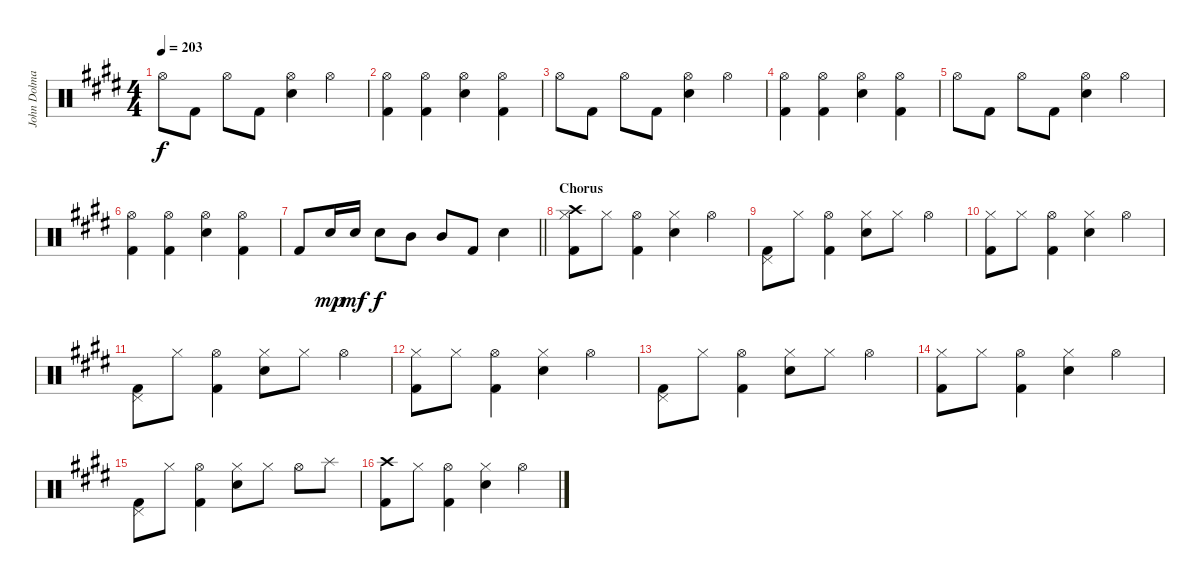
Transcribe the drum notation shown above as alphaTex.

\track ("John Dolmayan [Drums]" "John Dolma") {instrument percussion}
\staff {score}
\articulation defaults
\ts (4 4)
\tempo 203
\clef neutral
\ks c#minor "Hi-Hat (open)".8{dy f} "Kick (hit) 2".8 "Hi-Hat (open)".8 "Kick (hit) 2".8
("Hi-Hat (open)" "Electric Snare (hit)").4 "Hi-Hat (open)".4 |
("Hi-Hat (open)" "Kick (hit) 2").4 ("Hi-Hat (open)" "Kick (hit) 2").4 ("Hi-Hat (open)" "Electric Snare (hit)").4 ("Hi-Hat (open)" "Kick (hit) 2").4 |
"Hi-Hat (open)".8 "Kick (hit) 2".8 "Hi-Hat (open)".8 "Kick (hit) 2".8 ("Hi-Hat (open)" "Electric Snare (hit)").4 "Hi-Hat (open)".4 |
("Hi-Hat (open)" "Kick (hit) 2").4 ("Hi-Hat (open)" "Kick (hit) 2").4 ("Hi-Hat (open)" "Electric Snare (hit)").4 ("Hi-Hat (open)" "Kick (hit) 2").4 |
"Hi-Hat (open)".8 "Kick (hit) 2".8 "Hi-Hat (open)".8 "Kick (hit) 2".8 ("Hi-Hat (open)" "Electric Snare (hit)").4 "Hi-Hat (open)".4 |
("Hi-Hat (open)" "Kick (hit) 2").4 ("Hi-Hat (open)" "Kick (hit) 2").4 ("Hi-Hat (open)" "Electric Snare (hit)").4 ("Hi-Hat (open)" "Kick (hit) 2").4 |
\barLineRight lightlight "Kick (hit) 2".8 "Electric Snare (hit)".16{dy mp} "Electric Snare (hit)".16{dy mf} "Electric Snare (hit)".8{dy f} "Mid Tom (hit)".8 "Mid Tom (hit)".8 "Kick (hit) 2".8 "Electric Snare (hit)".4
|
\section ("" "Chorus")
("Crash high (hit)" "Hi-Hat (closed)" "Kick (hit) 2").8 "Hi-Hat (closed)".8 ("Hi-Hat (open)" "Kick (hit) 2").4 ("Hi-Hat (closed)" "Electric Snare (hit)").4 "Hi-Hat (open)".4 |
("Pedal Hi-Hat (hit)" "Kick (hit) 2").8 "Hi-Hat (closed)".8 ("Hi-Hat (open)" "Kick (hit) 2").4 ("Hi-Hat (closed)" "Electric Snare (hit)").8 "Hi-Hat (closed)".8 "Hi-Hat (open)".4 |
("Hi-Hat (closed)" "Kick (hit) 2").8 "Hi-Hat (closed)".8 ("Hi-Hat (open)" "Kick (hit) 2").4 ("Hi-Hat (closed)" "Electric Snare (hit)").4 "Hi-Hat (open)".4 |
("Pedal Hi-Hat (hit)" "Kick (hit) 2").8 "Hi-Hat (closed)".8 ("Hi-Hat (open)" "Kick (hit) 2").4 ("Hi-Hat (closed)" "Electric Snare (hit)").8 "Hi-Hat (closed)".8 "Hi-Hat (open)".4 |
("Hi-Hat (closed)" "Kick (hit) 2").8 "Hi-Hat (closed)".8 ("Hi-Hat (open)" "Kick (hit) 2").4 ("Hi-Hat (closed)" "Electric Snare (hit)").4 "Hi-Hat (open)".4 |
("Pedal Hi-Hat (hit)" "Kick (hit) 2").8 "Hi-Hat (closed)".8 ("Hi-Hat (open)" "Kick (hit) 2").4 ("Hi-Hat (closed)" "Electric Snare (hit)").8 "Hi-Hat (closed)".8 "Hi-Hat (open)".4 |
("Hi-Hat (closed)" "Kick (hit) 2").8 "Hi-Hat (closed)".8 ("Hi-Hat (open)" "Kick (hit) 2").4 ("Hi-Hat (closed)" "Electric Snare (hit)").4 "Hi-Hat (open)".4 |
("Pedal Hi-Hat (hit)" "Kick (hit) 2").8 "Hi-Hat (closed)".8 ("Hi-Hat (open)" "Kick (hit) 2").4 ("Hi-Hat (closed)" "Electric Snare (hit)").8 "Hi-Hat (closed)".8 "Hi-Hat (open)".8 "Splash (hit)".8 |
("Crash high (hit)" "Kick (hit) 2").8 "Hi-Hat (closed)".8 ("Hi-Hat (open)" "Kick (hit) 2").4 ("Hi-Hat (closed)" "Electric Snare (hit)").4 "Hi-Hat (open)".4
